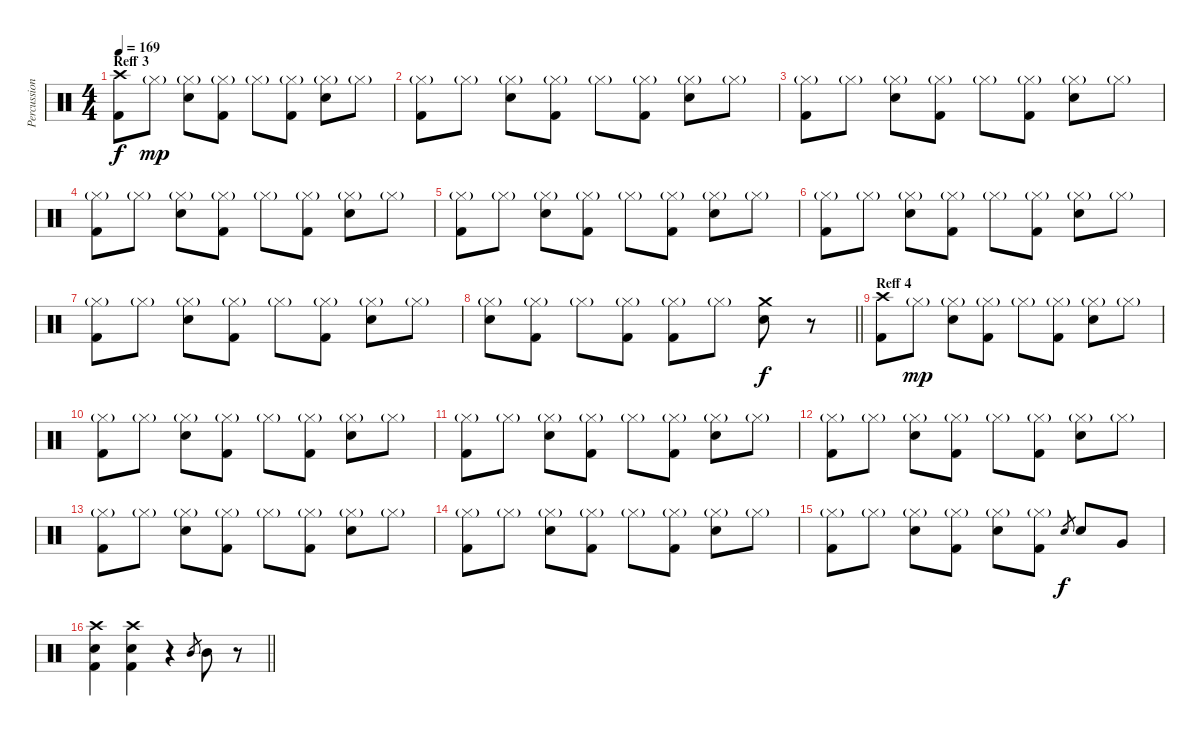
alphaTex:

\track ("Percussion" "Percussion") {instrument percussion}
\staff {score}
\articulation defaults
\ts (4 4)
\section ("" "Reff 3")
\tempo 169
\clef neutral
\ks c
("Crash high (hit)" "Kick (hit) 2").8{dy f} "Hi-Hat (closed)"{g}.8{dy mp} ("Hi-Hat (closed)"{g} "Snare (hit) 2").8 ("Hi-Hat (closed)"{g} "Kick (hit) 2").8 "Hi-Hat (closed)"{g}.8 ("Hi-Hat (closed)"{g} "Kick (hit) 2").8 ("Hi-Hat (closed)"{g} "Snare (hit) 2").8 "Hi-Hat (closed)"{g}.8 |
("Hi-Hat (closed)"{g} "Kick (hit) 2").8 "Hi-Hat (closed)"{g}.8 ("Hi-Hat (closed)"{g} "Snare (hit) 2").8 ("Hi-Hat (closed)"{g} "Kick (hit) 2").8 "Hi-Hat (closed)"{g}.8 ("Hi-Hat (closed)"{g} "Kick (hit) 2").8 ("Hi-Hat (closed)"{g} "Snare (hit) 2").8 "Hi-Hat (closed)"{g}.8 |
("Hi-Hat (closed)"{g} "Kick (hit) 2").8 "Hi-Hat (closed)"{g}.8 ("Hi-Hat (closed)"{g} "Snare (hit) 2").8 ("Hi-Hat (closed)"{g} "Kick (hit) 2").8 "Hi-Hat (closed)"{g}.8 ("Hi-Hat (closed)"{g} "Kick (hit) 2").8 ("Hi-Hat (closed)"{g} "Snare (hit) 2").8 "Hi-Hat (closed)"{g}.8 |
("Hi-Hat (closed)"{g} "Kick (hit) 2").8 "Hi-Hat (closed)"{g}.8 ("Hi-Hat (closed)"{g} "Snare (hit) 2").8 ("Hi-Hat (closed)"{g} "Kick (hit) 2").8 "Hi-Hat (closed)"{g}.8 ("Hi-Hat (closed)"{g} "Kick (hit) 2").8 ("Hi-Hat (closed)"{g} "Snare (hit) 2").8 "Hi-Hat (closed)"{g}.8 |
("Hi-Hat (closed)"{g} "Kick (hit) 2").8 "Hi-Hat (closed)"{g}.8 ("Hi-Hat (closed)"{g} "Snare (hit) 2").8 ("Hi-Hat (closed)"{g} "Kick (hit) 2").8 "Hi-Hat (closed)"{g}.8 ("Hi-Hat (closed)"{g} "Kick (hit) 2").8 ("Hi-Hat (closed)"{g} "Snare (hit) 2").8 "Hi-Hat (closed)"{g}.8 |
("Hi-Hat (closed)"{g} "Kick (hit) 2").8 "Hi-Hat (closed)"{g}.8 ("Hi-Hat (closed)"{g} "Snare (hit) 2").8 ("Hi-Hat (closed)"{g} "Kick (hit) 2").8 "Hi-Hat (closed)"{g}.8 ("Hi-Hat (closed)"{g} "Kick (hit) 2").8 ("Hi-Hat (closed)"{g} "Snare (hit) 2").8 "Hi-Hat (closed)"{g}.8 |
("Hi-Hat (closed)"{g} "Kick (hit) 2").8 "Hi-Hat (closed)"{g}.8 ("Hi-Hat (closed)"{g} "Snare (hit) 2").8 ("Hi-Hat (closed)"{g} "Kick (hit) 2").8 "Hi-Hat (closed)"{g}.8 ("Hi-Hat (closed)"{g} "Kick (hit) 2").8 ("Hi-Hat (closed)"{g} "Snare (hit) 2").8 "Hi-Hat (closed)"{g}.8 |
\barLineRight lightlight
("Hi-Hat (closed)"{g} "Snare (hit) 2").8 ("Hi-Hat (closed)"{g} "Kick (hit) 2").8 "Hi-Hat (closed)"{g}.8 ("Hi-Hat (closed)"{g} "Kick (hit) 2").8 ("Hi-Hat (closed)"{g} "Kick (hit) 2").8 "Hi-Hat (closed)"{g}.8 ("Snare (hit) 2" "Crash medium (hit)").8{dy f} r.8 |
\section ("" "Reff 4")
("Crash high (hit)" "Kick (hit) 2").8 "Hi-Hat (closed)"{g}.8{dy mp} ("Hi-Hat (closed)"{g} "Snare (hit) 2").8 ("Hi-Hat (closed)"{g} "Kick (hit) 2").8 "Hi-Hat (closed)"{g}.8 ("Hi-Hat (closed)"{g} "Kick (hit) 2").8 ("Hi-Hat (closed)"{g} "Snare (hit) 2").8 "Hi-Hat (closed)"{g}.8 |
("Hi-Hat (closed)"{g} "Kick (hit) 2").8 "Hi-Hat (closed)"{g}.8 ("Hi-Hat (closed)"{g} "Snare (hit) 2").8 ("Hi-Hat (closed)"{g} "Kick (hit) 2").8 "Hi-Hat (closed)"{g}.8 ("Hi-Hat (closed)"{g} "Kick (hit) 2").8 ("Hi-Hat (closed)"{g} "Snare (hit) 2").8 "Hi-Hat (closed)"{g}.8 |
("Hi-Hat (closed)"{g} "Kick (hit) 2").8 "Hi-Hat (closed)"{g}.8 ("Hi-Hat (closed)"{g} "Snare (hit) 2").8 ("Hi-Hat (closed)"{g} "Kick (hit) 2").8 "Hi-Hat (closed)"{g}.8 ("Hi-Hat (closed)"{g} "Kick (hit) 2").8 ("Hi-Hat (closed)"{g} "Snare (hit) 2").8 "Hi-Hat (closed)"{g}.8 |
("Hi-Hat (closed)"{g} "Kick (hit) 2").8 "Hi-Hat (closed)"{g}.8 ("Hi-Hat (closed)"{g} "Snare (hit) 2").8 ("Hi-Hat (closed)"{g} "Kick (hit) 2").8 "Hi-Hat (closed)"{g}.8 ("Hi-Hat (closed)"{g} "Kick (hit) 2").8 ("Hi-Hat (closed)"{g} "Snare (hit) 2").8 "Hi-Hat (closed)"{g}.8 |
("Hi-Hat (closed)"{g} "Kick (hit) 2").8 "Hi-Hat (closed)"{g}.8 ("Hi-Hat (closed)"{g} "Snare (hit) 2").8 ("Hi-Hat (closed)"{g} "Kick (hit) 2").8 "Hi-Hat (closed)"{g}.8 ("Hi-Hat (closed)"{g} "Kick (hit) 2").8 ("Hi-Hat (closed)"{g} "Snare (hit) 2").8 "Hi-Hat (closed)"{g}.8 |
("Hi-Hat (closed)"{g} "Kick (hit) 2").8 "Hi-Hat (closed)"{g}.8 ("Hi-Hat (closed)"{g} "Snare (hit) 2").8 ("Hi-Hat (closed)"{g} "Kick (hit) 2").8 "Hi-Hat (closed)"{g}.8 ("Hi-Hat (closed)"{g} "Kick (hit) 2").8 ("Hi-Hat (closed)"{g} "Snare (hit) 2").8 "Hi-Hat (closed)"{g}.8 |
("Hi-Hat (closed)"{g} "Kick (hit) 2").8 "Hi-Hat (closed)"{g}.8 ("Hi-Hat (closed)"{g} "Snare (hit) 2").8 ("Hi-Hat (closed)"{g} "Kick (hit) 2").8 ("Hi-Hat (closed)"{g} "Snare (hit) 2").8 ("Hi-Hat (closed)"{g} "Kick (hit) 2").8 "Snare (hit) 2".8{gr dy f} "Snare (hit) 2".8 "Very Low Tom (hit)".8 |
\barLineRight lightlight
("Snare (hit) 2" "Crash high (hit)" "Kick (hit) 2").4 ("Snare (hit) 2" "Crash high (hit)" "Kick (hit) 2").4 r.4 "Mid Tom (hit)".8{gr} "Mid Tom (hit)".8 r.8
